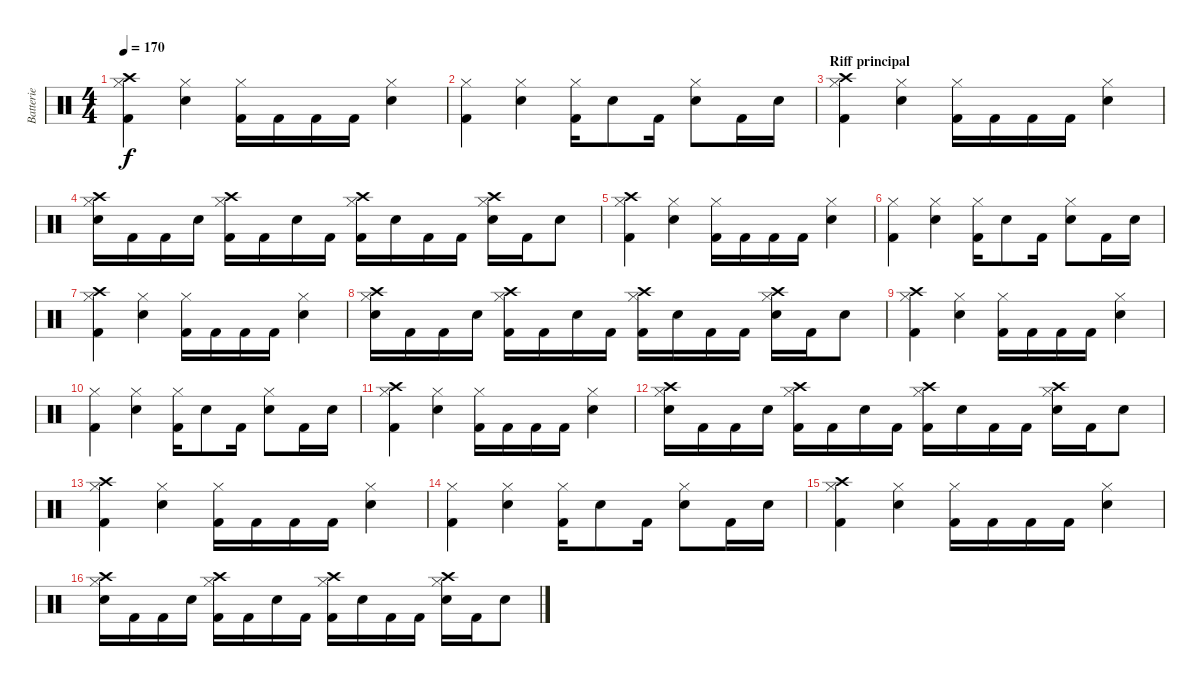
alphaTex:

\track ("Batterie" "Batterie") {instrument percussion}
\staff {score}
\articulation defaults
\ts (4 4)
\tempo 170
\clef neutral
\ks c
("Crash high (hit)" "Hi-Hat (closed)" "Kick (hit) 2").4{dy f} ("Hi-Hat (closed)" "Snare (hit) 2").4 ("Hi-Hat (closed)" "Kick (hit) 2").16 "Kick (hit) 2".16 "Kick (hit) 2".16 "Kick (hit) 2".16 ("Hi-Hat (closed)" "Snare (hit) 2").4 |
("Hi-Hat (closed)" "Kick (hit) 2").4 ("Hi-Hat (closed)" "Snare (hit) 2").4 ("Hi-Hat (closed)" "Kick (hit) 2").16 "Snare (hit) 2".8 "Kick (hit) 2".16 ("Hi-Hat (closed)" "Snare (hit) 2").8 "Kick (hit) 2".16 "Snare (hit) 2".16 |
\section ("" "Riff principal")
("Crash high (hit)" "Hi-Hat (closed)" "Kick (hit) 2").4 ("Hi-Hat (closed)" "Snare (hit) 2").4 ("Hi-Hat (closed)" "Kick (hit) 2").16 "Kick (hit) 2".16 "Kick (hit) 2".16 "Kick (hit) 2".16 ("Hi-Hat (closed)" "Snare (hit) 2").4 |
("Crash high (hit)" "Hi-Hat (closed)" "Snare (hit) 2").16 "Kick (hit) 2".16 "Kick (hit) 2".16 "Snare (hit) 2".16 ("Crash high (hit)" "Hi-Hat (closed)" "Kick (hit) 2").16 "Kick (hit) 2".16 "Snare (hit) 2".16 "Kick (hit) 2".16 ("Crash high (hit)" "Hi-Hat (closed)" "Kick (hit) 2").16 "Snare (hit) 2".16 "Kick (hit) 2".16 "Kick (hit) 2".16 ("Crash high (hit)" "Hi-Hat (closed)" "Snare (hit) 2").16 "Kick (hit) 2".16 "Snare (hit) 2".8 |
("Crash high (hit)" "Hi-Hat (closed)" "Kick (hit) 2").4 ("Hi-Hat (closed)" "Snare (hit) 2").4 ("Hi-Hat (closed)" "Kick (hit) 2").16 "Kick (hit) 2".16 "Kick (hit) 2".16 "Kick (hit) 2".16 ("Hi-Hat (closed)" "Snare (hit) 2").4 |
("Hi-Hat (closed)" "Kick (hit) 2").4 ("Hi-Hat (closed)" "Snare (hit) 2").4 ("Hi-Hat (closed)" "Kick (hit) 2").16 "Snare (hit) 2".8 "Kick (hit) 2".16 ("Hi-Hat (closed)" "Snare (hit) 2").8 "Kick (hit) 2".16 "Snare (hit) 2".16 |
("Crash high (hit)" "Hi-Hat (closed)" "Kick (hit) 2").4 ("Hi-Hat (closed)" "Snare (hit) 2").4 ("Hi-Hat (closed)" "Kick (hit) 2").16 "Kick (hit) 2".16 "Kick (hit) 2".16 "Kick (hit) 2".16 ("Hi-Hat (closed)" "Snare (hit) 2").4 |
("Crash high (hit)" "Hi-Hat (closed)" "Snare (hit) 2").16 "Kick (hit) 2".16 "Kick (hit) 2".16 "Snare (hit) 2".16 ("Crash high (hit)" "Hi-Hat (closed)" "Kick (hit) 2").16 "Kick (hit) 2".16 "Snare (hit) 2".16 "Kick (hit) 2".16 ("Crash high (hit)" "Hi-Hat (closed)" "Kick (hit) 2").16 "Snare (hit) 2".16 "Kick (hit) 2".16 "Kick (hit) 2".16 ("Crash high (hit)" "Hi-Hat (closed)" "Snare (hit) 2").16 "Kick (hit) 2".16 "Snare (hit) 2".8 |
("Crash high (hit)" "Hi-Hat (closed)" "Kick (hit) 2").4 ("Hi-Hat (closed)" "Snare (hit) 2").4 ("Hi-Hat (closed)" "Kick (hit) 2").16 "Kick (hit) 2".16 "Kick (hit) 2".16 "Kick (hit) 2".16 ("Hi-Hat (closed)" "Snare (hit) 2").4 |
("Hi-Hat (closed)" "Kick (hit) 2").4 ("Hi-Hat (closed)" "Snare (hit) 2").4 ("Hi-Hat (closed)" "Kick (hit) 2").16 "Snare (hit) 2".8 "Kick (hit) 2".16 ("Hi-Hat (closed)" "Snare (hit) 2").8 "Kick (hit) 2".16 "Snare (hit) 2".16 |
("Crash high (hit)" "Hi-Hat (closed)" "Kick (hit) 2").4 ("Hi-Hat (closed)" "Snare (hit) 2").4 ("Hi-Hat (closed)" "Kick (hit) 2").16 "Kick (hit) 2".16 "Kick (hit) 2".16 "Kick (hit) 2".16 ("Hi-Hat (closed)" "Snare (hit) 2").4 |
("Crash high (hit)" "Hi-Hat (closed)" "Snare (hit) 2").16 "Kick (hit) 2".16 "Kick (hit) 2".16 "Snare (hit) 2".16 ("Crash high (hit)" "Hi-Hat (closed)" "Kick (hit) 2").16 "Kick (hit) 2".16 "Snare (hit) 2".16 "Kick (hit) 2".16 ("Crash high (hit)" "Hi-Hat (closed)" "Kick (hit) 2").16 "Snare (hit) 2".16 "Kick (hit) 2".16 "Kick (hit) 2".16 ("Crash high (hit)" "Hi-Hat (closed)" "Snare (hit) 2").16 "Kick (hit) 2".16 "Snare (hit) 2".8 |
("Crash high (hit)" "Hi-Hat (closed)" "Kick (hit) 2").4 ("Hi-Hat (closed)" "Snare (hit) 2").4 ("Hi-Hat (closed)" "Kick (hit) 2").16 "Kick (hit) 2".16 "Kick (hit) 2".16 "Kick (hit) 2".16 ("Hi-Hat (closed)" "Snare (hit) 2").4 |
("Hi-Hat (closed)" "Kick (hit) 2").4 ("Hi-Hat (closed)" "Snare (hit) 2").4 ("Hi-Hat (closed)" "Kick (hit) 2").16 "Snare (hit) 2".8 "Kick (hit) 2".16 ("Hi-Hat (closed)" "Snare (hit) 2").8 "Kick (hit) 2".16 "Snare (hit) 2".16 |
("Crash high (hit)" "Hi-Hat (closed)" "Kick (hit) 2").4 ("Hi-Hat (closed)" "Snare (hit) 2").4 ("Hi-Hat (closed)" "Kick (hit) 2").16 "Kick (hit) 2".16 "Kick (hit) 2".16 "Kick (hit) 2".16 ("Hi-Hat (closed)" "Snare (hit) 2").4 |
("Crash high (hit)" "Hi-Hat (closed)" "Snare (hit) 2").16 "Kick (hit) 2".16 "Kick (hit) 2".16 "Snare (hit) 2".16 ("Crash high (hit)" "Hi-Hat (closed)" "Kick (hit) 2").16 "Kick (hit) 2".16 "Snare (hit) 2".16 "Kick (hit) 2".16 ("Crash high (hit)" "Hi-Hat (closed)" "Kick (hit) 2").16 "Snare (hit) 2".16 "Kick (hit) 2".16 "Kick (hit) 2".16 ("Crash high (hit)" "Hi-Hat (closed)" "Snare (hit) 2").16 "Kick (hit) 2".16 "Snare (hit) 2".8
